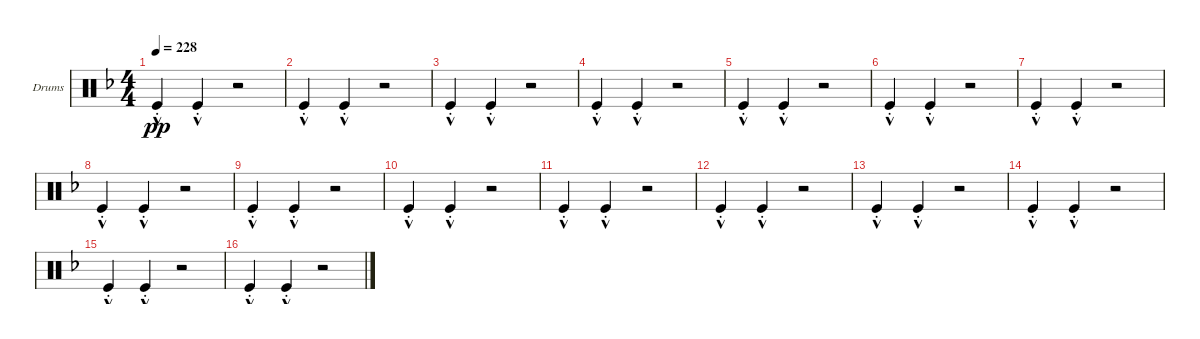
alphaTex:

\defaultSystemsLayout 4
\bracketExtendMode groupsimilarinstruments
\firstSystemTrackNameOrientation horizontal
\otherSystemsTrackNameOrientation horizontal
\track ("Drumkit" "Drums") {instrument percussion}
\staff {score}
\articulation defaults
\ts (4 4)
\tempo 228
\clef neutral
\ks dminor "Kick (hit)"{hac st}.4{dy pp} "Kick (hit)"{hac st}.4
r.2 |
"Kick (hit)"{hac st}.4 "Kick (hit)"{hac st}.4 r.2 |
"Kick (hit)"{hac st}.4 "Kick (hit)"{hac st}.4 r.2 |
"Kick (hit)"{hac st}.4 "Kick (hit)"{hac st}.4 r.2 |
"Kick (hit)"{hac st}.4 "Kick (hit)"{hac st}.4 r.2 |
"Kick (hit)"{hac st}.4 "Kick (hit)"{hac st}.4 r.2 |
"Kick (hit)"{hac st}.4 "Kick (hit)"{hac st}.4 r.2 |
"Kick (hit)"{hac st}.4 "Kick (hit)"{hac st}.4 r.2 |
"Kick (hit)"{hac st}.4 "Kick (hit)"{hac st}.4 r.2 |
"Kick (hit)"{hac st}.4 "Kick (hit)"{hac st}.4 r.2 |
"Kick (hit)"{hac st}.4 "Kick (hit)"{hac st}.4 r.2 |
"Kick (hit)"{hac st}.4 "Kick (hit)"{hac st}.4 r.2 |
"Kick (hit)"{hac st}.4 "Kick (hit)"{hac st}.4 r.2 |
"Kick (hit)"{hac st}.4 "Kick (hit)"{hac st}.4 r.2 |
"Kick (hit)"{hac st}.4 "Kick (hit)"{hac st}.4 r.2 |
"Kick (hit)"{hac st}.4 "Kick (hit)"{hac st}.4 r.2
